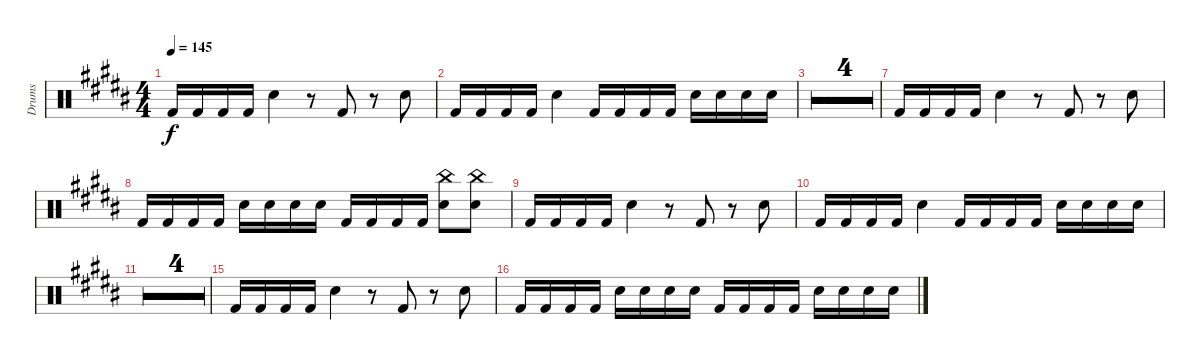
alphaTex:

\defaultSystemsLayout 4
\bracketExtendMode groupsimilarinstruments
\otherSystemsTrackNameOrientation horizontal
\track ("Drumkit" "Drums") {multiBarRest instrument percussion}
\staff {score}
\articulation defaults
\ts (4 4)
\tempo 145
\clef neutral
\ks b "Kick (hit) 2"{acc forcenatural}.16{dy f} "Kick (hit) 2"{acc forcenatural}.16 "Kick (hit) 2"{acc forcenatural}.16 "Kick (hit) 2"{acc forcenatural}.16 "Snare (hit) 2"{acc forcenatural}.4
r.8 "Kick (hit) 2"{acc forcenatural}.8 r.8 "Snare (hit) 2"{acc forcenatural}.8 |
"Kick (hit) 2"{acc forcenatural}.16 "Kick (hit) 2"{acc forcenatural}.16 "Kick (hit) 2"{acc forcenatural}.16 "Kick (hit) 2"{acc forcenatural}.16 "Snare (hit) 2"{acc forcenatural}.4 "Kick (hit) 2"{acc forcenatural}.16 "Kick (hit) 2"{acc forcenatural}.16 "Kick (hit) 2"{acc forcenatural}.16 "Kick (hit) 2"{acc forcenatural}.16 "Snare (hit) 2"{acc forcenatural}.16 "Snare (hit) 2"{acc forcenatural}.16 "Snare (hit) 2"{acc forcenatural}.16 "Snare (hit) 2"{acc forcenatural}.16 |
\simile firstofdouble
|
\simile secondofdouble
|
\simile firstofdouble
|
\simile secondofdouble
|
\simile none "Kick (hit) 2"{acc forcenatural}.16 "Kick (hit) 2"{acc forcenatural}.16 "Kick (hit) 2"{acc forcenatural}.16 "Kick (hit) 2"{acc forcenatural}.16 "Snare (hit) 2"{acc forcenatural}.4
r.8 "Kick (hit) 2"{acc forcenatural}.8 r.8 "Snare (hit) 2"{acc forcenatural}.8 |
"Kick (hit) 2"{acc forcenatural}.16 "Kick (hit) 2"{acc forcenatural}.16 "Kick (hit) 2"{acc forcenatural}.16 "Kick (hit) 2"{acc forcenatural}.16 "Snare (hit) 2"{acc forcenatural}.16 "Snare (hit) 2"{acc forcenatural}.16 "Snare (hit) 2"{acc forcenatural}.16 "Snare (hit) 2"{acc forcenatural}.16 "Kick (hit) 2"{acc forcenatural}.16 "Kick (hit) 2"{acc forcenatural}.16 "Kick (hit) 2"{acc forcenatural}.16 "Kick (hit) 2"{acc forcenatural}.16 ("Snare (hit) 2"{acc forcenatural} "China (hit)"{acc forcenatural}).8 ("Snare (hit) 2"{acc forcenatural} "China (hit)"{acc forcenatural}).8 |
"Kick (hit) 2"{acc forcenatural}.16 "Kick (hit) 2"{acc forcenatural}.16 "Kick (hit) 2"{acc forcenatural}.16 "Kick (hit) 2"{acc forcenatural}.16 "Snare (hit) 2"{acc forcenatural}.4 r.8 "Kick (hit) 2"{acc forcenatural}.8 r.8 "Snare (hit) 2"{acc forcenatural}.8 |
"Kick (hit) 2"{acc forcenatural}.16 "Kick (hit) 2"{acc forcenatural}.16 "Kick (hit) 2"{acc forcenatural}.16 "Kick (hit) 2"{acc forcenatural}.16 "Snare (hit) 2"{acc forcenatural}.4 "Kick (hit) 2"{acc forcenatural}.16 "Kick (hit) 2"{acc forcenatural}.16 "Kick (hit) 2"{acc forcenatural}.16 "Kick (hit) 2"{acc forcenatural}.16 "Snare (hit) 2"{acc forcenatural}.16 "Snare (hit) 2"{acc forcenatural}.16 "Snare (hit) 2"{acc forcenatural}.16 "Snare (hit) 2"{acc forcenatural}.16 |
\simile firstofdouble
|
\simile secondofdouble
|
\simile firstofdouble
|
\simile secondofdouble
|
\simile none "Kick (hit) 2"{acc forcenatural}.16 "Kick (hit) 2"{acc forcenatural}.16 "Kick (hit) 2"{acc forcenatural}.16 "Kick (hit) 2"{acc forcenatural}.16 "Snare (hit) 2"{acc forcenatural}.4
r.8 "Kick (hit) 2"{acc forcenatural}.8 r.8 "Snare (hit) 2"{acc forcenatural}.8 |
"Kick (hit) 2"{acc forcenatural}.16 "Kick (hit) 2"{acc forcenatural}.16 "Kick (hit) 2"{acc forcenatural}.16 "Kick (hit) 2"{acc forcenatural}.16 "Snare (hit) 2"{acc forcenatural}.16 "Snare (hit) 2"{acc forcenatural}.16 "Snare (hit) 2"{acc forcenatural}.16 "Snare (hit) 2"{acc forcenatural}.16 "Kick (hit) 2"{acc forcenatural}.16 "Kick (hit) 2"{acc forcenatural}.16 "Kick (hit) 2"{acc forcenatural}.16 "Kick (hit) 2"{acc forcenatural}.16 "Snare (hit) 2"{acc forcenatural}.16 "Snare (hit) 2"{acc forcenatural}.16 "Snare (hit) 2"{acc forcenatural}.16 "Snare (hit) 2"{acc forcenatural}.16
